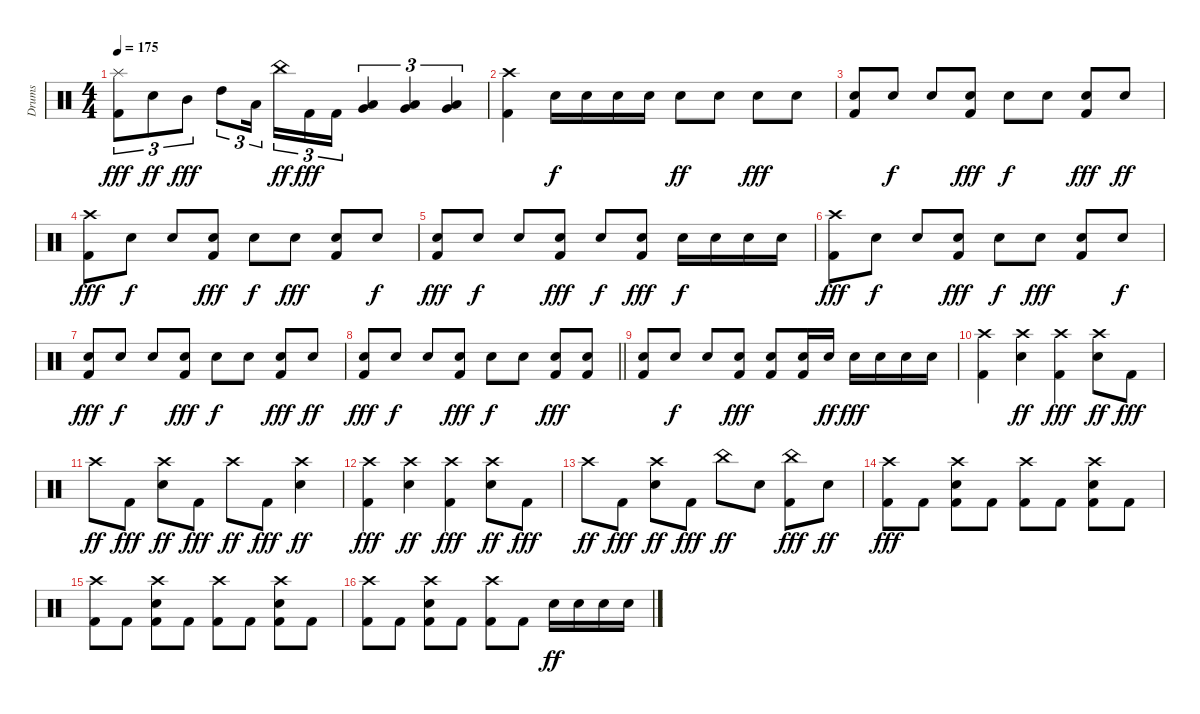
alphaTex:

\track ("Drums" "Drums") {instrument percussion}
\staff {score}
\articulation defaults
\ts (4 4)
\tempo 175
\clef neutral
\ks c
("Splash (hit)" "Kick (hit) 2").8{tu (3 2) dy fff} "Snare (hit) 2".8{tu (3 2) dy ff} "Mid Tom (hit)".8{tu (3 2) dy fff} "High Tom (hit)".8{tu (3 2)} "Low Tom (hit)".16{tu (3 2) beam splitsecondary} "China (hit)".16{tu (3 2) dy ff} "Kick (hit) 2".16{tu (3 2) dy fff} "Kick (hit) 2".16{tu (3 2)} ("Very Low Tom (hit)" "Low Floor Tom (hit)").4{tu (3 2)} ("Very Low Tom (hit)" "Low Floor Tom (hit)").4{tu (3 2)} ("Very Low Tom (hit)" "Low Floor Tom (hit)").4{tu (3 2)} |
("Crash high (hit)" "Kick (hit) 2").4 "Snare (hit) 2".16{dy f} "Snare (hit) 2".16 "Snare (hit) 2".16 "Snare (hit) 2".16 "Snare (hit) 2".8{dy ff} "Snare (hit) 2".8 "Snare (hit) 2".8{dy fff} "Snare (hit) 2".8 |
("Snare (hit) 2" "Kick (hit) 2").8 "Snare (hit) 2".8{dy f} "Snare (hit) 2".8 ("Snare (hit) 2" "Kick (hit) 2").8{dy fff} "Snare (hit) 2".8{dy f} "Snare (hit) 2".8 ("Snare (hit) 2" "Kick (hit) 2").8{dy fff} "Snare (hit) 2".8{dy ff} |
("Crash high (hit)" "Kick (hit) 2").8{dy fff} "Snare (hit) 2".8{dy f} "Snare (hit) 2".8 ("Snare (hit) 2" "Kick (hit) 2").8{dy fff} "Snare (hit) 2".8{dy f} "Snare (hit) 2".8{dy fff} ("Snare (hit) 2" "Kick (hit) 2").8 "Snare (hit) 2".8{dy f} |
("Snare (hit) 2" "Kick (hit) 2").8{dy fff} "Snare (hit) 2".8{dy f} "Snare (hit) 2".8 ("Snare (hit) 2" "Kick (hit) 2").8{dy fff} "Snare (hit) 2".8{dy f} ("Snare (hit) 2" "Kick (hit) 2").8{dy fff} "Snare (hit) 2".16{dy f} "Snare (hit) 2".16 "Snare (hit) 2".16 "Snare (hit) 2".16 |
("Crash high (hit)" "Kick (hit) 2").8{dy fff} "Snare (hit) 2".8{dy f} "Snare (hit) 2".8 ("Snare (hit) 2" "Kick (hit) 2").8{dy fff} "Snare (hit) 2".8{dy f} "Snare (hit) 2".8{dy fff} ("Snare (hit) 2" "Kick (hit) 2").8 "Snare (hit) 2".8{dy f} |
("Snare (hit) 2" "Kick (hit) 2").8{dy fff} "Snare (hit) 2".8{dy f} "Snare (hit) 2".8 ("Snare (hit) 2" "Kick (hit) 2").8{dy fff} "Snare (hit) 2".8{dy f} "Snare (hit) 2".8 ("Snare (hit) 2" "Kick (hit) 2").8{dy fff} "Snare (hit) 2".8{dy ff} |
\barLineRight lightlight
("Snare (hit) 2" "Kick (hit) 2").8{dy fff} "Snare (hit) 2".8{dy f} "Snare (hit) 2".8 ("Snare (hit) 2" "Kick (hit) 2").8{dy fff} "Snare (hit) 2".8{dy f} "Snare (hit) 2".8 ("Snare (hit) 2" "Kick (hit) 2").8{dy fff} ("Snare (hit) 2" "Kick (hit) 2").8 |
("Snare (hit) 2" "Kick (hit) 2").8 "Snare (hit) 2".8{dy f} "Snare (hit) 2".8 ("Snare (hit) 2" "Kick (hit) 2").8{dy fff} ("Snare (hit) 2" "Kick (hit) 2").8 ("Snare (hit) 2" "Kick (hit) 2").16 "Snare (hit) 2".16{dy ff} "Snare (hit) 2".16{dy fff} "Snare (hit) 2".16 "Snare (hit) 2".16 "Snare (hit) 2".16 |
("Crash high (hit)" "Kick (hit) 2").4 ("Crash high (hit)" "Snare (hit) 2").4{dy ff} ("Crash high (hit)" "Kick (hit) 2").4{dy fff} ("Crash high (hit)" "Snare (hit) 2").8{dy ff} "Kick (hit) 2".8{dy fff} |
"Crash high (hit)".8{dy ff} "Kick (hit) 2".8{dy fff} ("Crash high (hit)" "Snare (hit) 2").8{dy ff} "Kick (hit) 2".8{dy fff} "Crash high (hit)".8{dy ff} "Kick (hit) 2".8{dy fff} ("Crash high (hit)" "Snare (hit) 2").4{dy ff} |
("Crash high (hit)" "Kick (hit) 2").4{dy fff} ("Crash high (hit)" "Snare (hit) 2").4{dy ff} ("Crash high (hit)" "Kick (hit) 2").4{dy fff} ("Crash high (hit)" "Snare (hit) 2").8{dy ff} "Kick (hit) 2".8{dy fff} |
"Crash high (hit)".8{dy ff} "Kick (hit) 2".8{dy fff} ("Crash high (hit)" "Snare (hit) 2").8{dy ff} "Kick (hit) 2".8{dy fff} "China (hit)".8{dy ff} "Snare (hit) 2".8 ("China (hit)" "Kick (hit) 2").8{dy fff} "Snare (hit) 2".8{dy ff} |
("Crash high (hit)" "Kick (hit) 2").8{dy fff} "Kick (hit) 2".8 ("Crash high (hit)" "Snare (hit) 2" "Kick (hit) 2").8 "Kick (hit) 2".8 ("Crash high (hit)" "Kick (hit) 2").8 "Kick (hit) 2".8 ("Crash high (hit)" "Snare (hit) 2" "Kick (hit) 2").8 "Kick (hit) 2".8 |
("Crash high (hit)" "Kick (hit) 2").8 "Kick (hit) 2".8 ("Crash high (hit)" "Snare (hit) 2" "Kick (hit) 2").8 "Kick (hit) 2".8 ("Crash high (hit)" "Kick (hit) 2").8 "Kick (hit) 2".8 ("Crash high (hit)" "Snare (hit) 2" "Kick (hit) 2").8 "Kick (hit) 2".8 |
("Crash high (hit)" "Kick (hit) 2").8 "Kick (hit) 2".8 ("Crash high (hit)" "Snare (hit) 2" "Kick (hit) 2").8 "Kick (hit) 2".8 ("Crash high (hit)" "Kick (hit) 2").8 "Kick (hit) 2".8 "Snare (hit) 2".16{dy ff} "Snare (hit) 2".16 "Snare (hit) 2".16 "Snare (hit) 2".16
